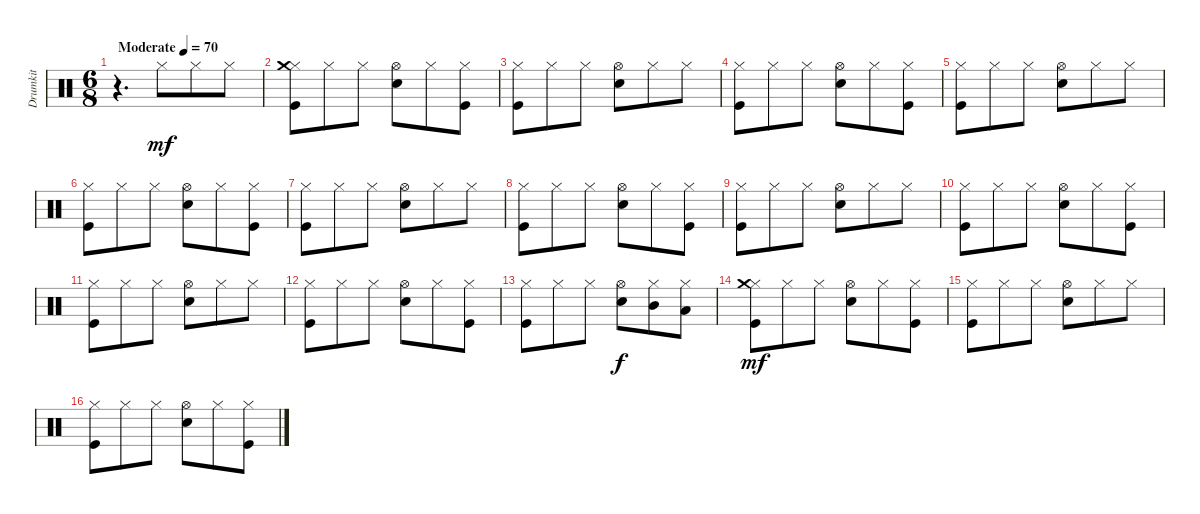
\track ("Drumkit" "Drumkit") {instrument percussion}
\staff {score}
\articulation defaults
\ts (6 8)
\tempo (70 "Moderate")
\clef neutral
\ks c
r.4{d dy mf} "Hi-Hat (closed)".8 "Hi-Hat (closed)".8 "Hi-Hat (closed)".8 |
("Hi-Hat (closed)" "Kick (hit)" "Crash medium (hit)").8 "Hi-Hat (closed)".8 "Hi-Hat (closed)".8 ("Hi-Hat (open)" "Snare (hit) 2").8 "Hi-Hat (closed)".8 ("Hi-Hat (closed)" "Kick (hit)").8 |
("Hi-Hat (closed)" "Kick (hit)").8 "Hi-Hat (closed)".8 "Hi-Hat (closed)".8 ("Hi-Hat (open)" "Snare (hit) 2").8 "Hi-Hat (closed)".8 "Hi-Hat (closed)".8 |
("Hi-Hat (closed)" "Kick (hit)").8 "Hi-Hat (closed)".8 "Hi-Hat (closed)".8 ("Hi-Hat (open)" "Snare (hit) 2").8 "Hi-Hat (closed)".8 ("Hi-Hat (closed)" "Kick (hit)").8 |
("Hi-Hat (closed)" "Kick (hit)").8 "Hi-Hat (closed)".8 "Hi-Hat (closed)".8 ("Hi-Hat (open)" "Snare (hit) 2").8 "Hi-Hat (closed)".8 "Hi-Hat (closed)".8 |
("Hi-Hat (closed)" "Kick (hit)").8 "Hi-Hat (closed)".8 "Hi-Hat (closed)".8 ("Hi-Hat (open)" "Snare (hit) 2").8 "Hi-Hat (closed)".8 ("Hi-Hat (closed)" "Kick (hit)").8 |
("Hi-Hat (closed)" "Kick (hit)").8 "Hi-Hat (closed)".8 "Hi-Hat (closed)".8 ("Hi-Hat (open)" "Snare (hit) 2").8 "Hi-Hat (closed)".8 "Hi-Hat (closed)".8 |
("Hi-Hat (closed)" "Kick (hit)").8 "Hi-Hat (closed)".8 "Hi-Hat (closed)".8 ("Hi-Hat (open)" "Snare (hit) 2").8 "Hi-Hat (closed)".8 ("Hi-Hat (closed)" "Kick (hit)").8 |
("Hi-Hat (closed)" "Kick (hit)").8 "Hi-Hat (closed)".8 "Hi-Hat (closed)".8 ("Hi-Hat (open)" "Snare (hit) 2").8 "Hi-Hat (closed)".8 "Hi-Hat (closed)".8 |
("Hi-Hat (closed)" "Kick (hit)").8 "Hi-Hat (closed)".8 "Hi-Hat (closed)".8 ("Hi-Hat (open)" "Snare (hit) 2").8 "Hi-Hat (closed)".8 ("Hi-Hat (closed)" "Kick (hit)").8 |
("Hi-Hat (closed)" "Kick (hit)").8 "Hi-Hat (closed)".8 "Hi-Hat (closed)".8 ("Hi-Hat (open)" "Snare (hit) 2").8 "Hi-Hat (closed)".8 "Hi-Hat (closed)".8 |
("Hi-Hat (closed)" "Kick (hit)").8 "Hi-Hat (closed)".8 "Hi-Hat (closed)".8 ("Hi-Hat (open)" "Snare (hit) 2").8 "Hi-Hat (closed)".8 ("Hi-Hat (closed)" "Kick (hit)").8 |
("Hi-Hat (closed)" "Kick (hit)").8 "Hi-Hat (closed)".8 "Hi-Hat (closed)".8 ("Hi-Hat (open)" "Snare (hit) 2").8{dy f} ("Hi-Hat (closed)" "Mid Tom (hit)").8 ("Hi-Hat (closed)" "Low Tom (hit)").8 |
("Hi-Hat (closed)" "Kick (hit)" "Crash medium (hit)").8{dy mf} "Hi-Hat (closed)".8 "Hi-Hat (closed)".8 ("Hi-Hat (open)" "Snare (hit) 2").8 "Hi-Hat (closed)".8 ("Hi-Hat (closed)" "Kick (hit)").8 |
("Hi-Hat (closed)" "Kick (hit)").8 "Hi-Hat (closed)".8 "Hi-Hat (closed)".8 ("Hi-Hat (open)" "Snare (hit) 2").8 "Hi-Hat (closed)".8 "Hi-Hat (closed)".8 |
("Hi-Hat (closed)" "Kick (hit)").8 "Hi-Hat (closed)".8 "Hi-Hat (closed)".8 ("Hi-Hat (open)" "Snare (hit) 2").8 "Hi-Hat (closed)".8 ("Hi-Hat (closed)" "Kick (hit)").8
